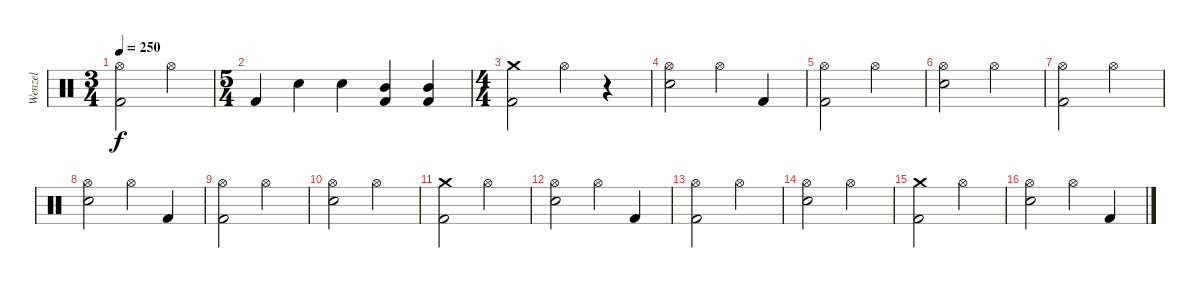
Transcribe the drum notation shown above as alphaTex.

\track ("Wenzel" "Wenzel") {instrument percussion}
\staff {score}
\articulation defaults
\ts (3 4)
\tempo 250
\clef neutral
\ks c
("Hi-Hat (open)" "Kick (hit) 2").2{dy f} "Hi-Hat (open)".4 |
\ts (5 4)
"Kick (hit) 2".4 "Snare (hit) 2".4 "Snare (hit) 2".4 ("Mid Tom (hit)" "Kick (hit) 2").4 ("Mid Tom (hit)" "Kick (hit) 2").4 |
\ts (4 4)
("Crash medium (hit)" "Kick (hit) 2").2 "Hi-Hat (open)".4 r.4 |
("Hi-Hat (open)" "Snare (hit) 2").2 "Hi-Hat (open)".4 "Kick (hit) 2".4 |
("Hi-Hat (open)" "Kick (hit) 2").2 "Hi-Hat (open)".2 |
("Hi-Hat (open)" "Snare (hit) 2").2 "Hi-Hat (open)".2 |
("Hi-Hat (open)" "Kick (hit) 2").2 "Hi-Hat (open)".2 |
("Hi-Hat (open)" "Snare (hit) 2").2 "Hi-Hat (open)".4 "Kick (hit) 2".4 |
("Hi-Hat (open)" "Kick (hit) 2").2 "Hi-Hat (open)".2 |
("Hi-Hat (open)" "Snare (hit) 2").2 "Hi-Hat (open)".2 |
("Crash medium (hit)" "Kick (hit) 2").2 "Hi-Hat (open)".2 |
("Hi-Hat (open)" "Snare (hit) 2").2 "Hi-Hat (open)".4 "Kick (hit) 2".4 |
("Hi-Hat (open)" "Kick (hit) 2").2 "Hi-Hat (open)".2 |
("Hi-Hat (open)" "Snare (hit) 2").2 "Hi-Hat (open)".2 |
("Crash medium (hit)" "Kick (hit) 2").2 "Hi-Hat (open)".2 |
("Hi-Hat (open)" "Snare (hit) 2").2 "Hi-Hat (open)".4 "Kick (hit) 2".4
